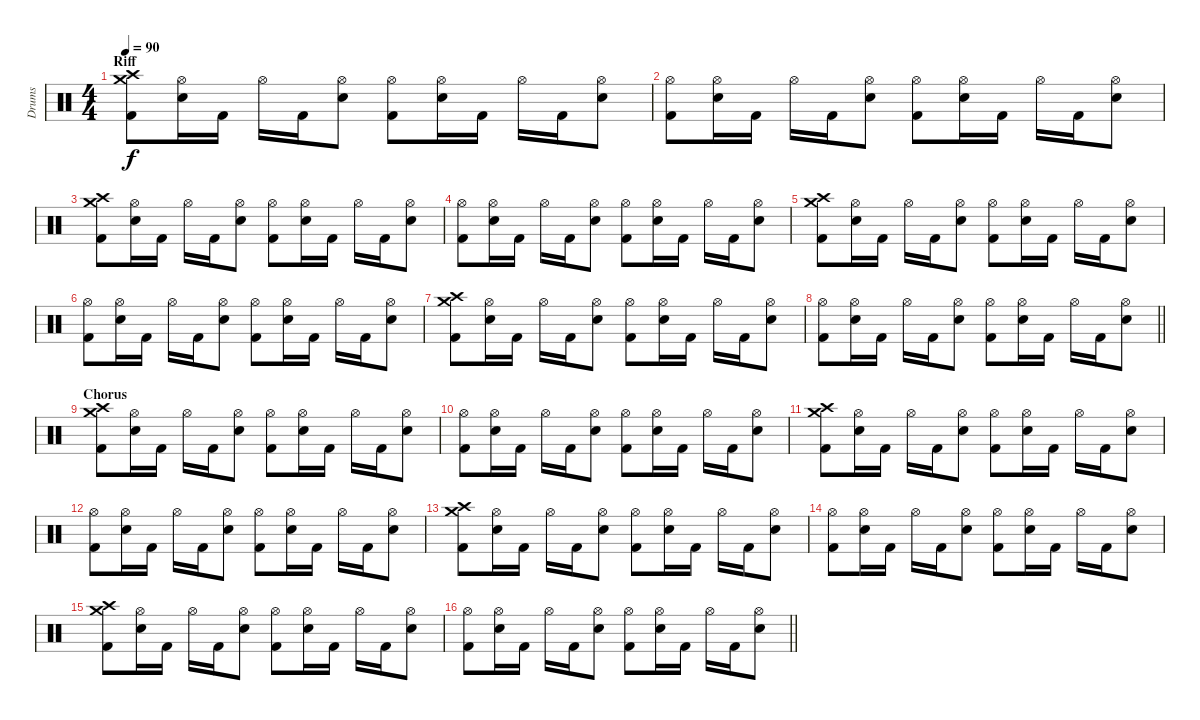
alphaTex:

\track ("Drums" "Drums") {instrument percussion}
\staff {score}
\articulation defaults
\ts (4 4)
\section ("" "Riff")
\tempo 90
\clef neutral
\ks c
("Kick (hit) 2" "Crash medium (hit)" "Crash high (hit)").8{dy f} ("Snare (hit) 2" "Hi-Hat (open)").16 "Kick (hit) 2".16 "Hi-Hat (open)".16 "Kick (hit) 2".16 ("Snare (hit) 2" "Hi-Hat (open)").8 ("Kick (hit) 2" "Hi-Hat (open)").8 ("Snare (hit) 2" "Hi-Hat (open)").16 "Kick (hit) 2".16 "Hi-Hat (open)".16 "Kick (hit) 2".16 ("Snare (hit) 2" "Hi-Hat (open)").8 |
("Kick (hit) 2" "Hi-Hat (open)").8 ("Snare (hit) 2" "Hi-Hat (open)").16 "Kick (hit) 2".16 "Hi-Hat (open)".16 "Kick (hit) 2".16 ("Snare (hit) 2" "Hi-Hat (open)").8 ("Kick (hit) 2" "Hi-Hat (open)").8 ("Snare (hit) 2" "Hi-Hat (open)").16 "Kick (hit) 2".16 "Hi-Hat (open)".16 "Kick (hit) 2".16 ("Snare (hit) 2" "Hi-Hat (open)").8 |
("Kick (hit) 2" "Crash medium (hit)" "Crash high (hit)").8 ("Snare (hit) 2" "Hi-Hat (open)").16 "Kick (hit) 2".16 "Hi-Hat (open)".16 "Kick (hit) 2".16 ("Snare (hit) 2" "Hi-Hat (open)").8 ("Kick (hit) 2" "Hi-Hat (open)").8 ("Snare (hit) 2" "Hi-Hat (open)").16 "Kick (hit) 2".16 "Hi-Hat (open)".16 "Kick (hit) 2".16 ("Snare (hit) 2" "Hi-Hat (open)").8 |
("Kick (hit) 2" "Hi-Hat (open)").8 ("Snare (hit) 2" "Hi-Hat (open)").16 "Kick (hit) 2".16 "Hi-Hat (open)".16 "Kick (hit) 2".16 ("Snare (hit) 2" "Hi-Hat (open)").8 ("Kick (hit) 2" "Hi-Hat (open)").8 ("Snare (hit) 2" "Hi-Hat (open)").16 "Kick (hit) 2".16 "Hi-Hat (open)".16 "Kick (hit) 2".16 ("Snare (hit) 2" "Hi-Hat (open)").8 |
("Kick (hit) 2" "Crash medium (hit)" "Crash high (hit)").8 ("Snare (hit) 2" "Hi-Hat (open)").16 "Kick (hit) 2".16 "Hi-Hat (open)".16 "Kick (hit) 2".16 ("Snare (hit) 2" "Hi-Hat (open)").8 ("Kick (hit) 2" "Hi-Hat (open)").8 ("Snare (hit) 2" "Hi-Hat (open)").16 "Kick (hit) 2".16 "Hi-Hat (open)".16 "Kick (hit) 2".16 ("Snare (hit) 2" "Hi-Hat (open)").8 |
("Kick (hit) 2" "Hi-Hat (open)").8 ("Snare (hit) 2" "Hi-Hat (open)").16 "Kick (hit) 2".16 "Hi-Hat (open)".16 "Kick (hit) 2".16 ("Snare (hit) 2" "Hi-Hat (open)").8 ("Kick (hit) 2" "Hi-Hat (open)").8 ("Snare (hit) 2" "Hi-Hat (open)").16 "Kick (hit) 2".16 "Hi-Hat (open)".16 "Kick (hit) 2".16 ("Snare (hit) 2" "Hi-Hat (open)").8 |
("Kick (hit) 2" "Crash medium (hit)" "Crash high (hit)").8 ("Snare (hit) 2" "Hi-Hat (open)").16 "Kick (hit) 2".16 "Hi-Hat (open)".16 "Kick (hit) 2".16 ("Snare (hit) 2" "Hi-Hat (open)").8 ("Kick (hit) 2" "Hi-Hat (open)").8 ("Snare (hit) 2" "Hi-Hat (open)").16 "Kick (hit) 2".16 "Hi-Hat (open)".16 "Kick (hit) 2".16 ("Snare (hit) 2" "Hi-Hat (open)").8 |
\barLineRight lightlight
("Kick (hit) 2" "Hi-Hat (open)").8 ("Snare (hit) 2" "Hi-Hat (open)").16 "Kick (hit) 2".16 "Hi-Hat (open)".16 "Kick (hit) 2".16 ("Snare (hit) 2" "Hi-Hat (open)").8 ("Kick (hit) 2" "Hi-Hat (open)").8 ("Snare (hit) 2" "Hi-Hat (open)").16 "Kick (hit) 2".16 "Hi-Hat (open)".16 "Kick (hit) 2".16 ("Snare (hit) 2" "Hi-Hat (open)").8 |
\section ("" "Chorus")
("Kick (hit) 2" "Crash medium (hit)" "Crash high (hit)").8 ("Snare (hit) 2" "Hi-Hat (open)").16 "Kick (hit) 2".16 "Hi-Hat (open)".16 "Kick (hit) 2".16 ("Snare (hit) 2" "Hi-Hat (open)").8 ("Kick (hit) 2" "Hi-Hat (open)").8 ("Snare (hit) 2" "Hi-Hat (open)").16 "Kick (hit) 2".16 "Hi-Hat (open)".16 "Kick (hit) 2".16 ("Snare (hit) 2" "Hi-Hat (open)").8 |
("Kick (hit) 2" "Hi-Hat (open)").8 ("Snare (hit) 2" "Hi-Hat (open)").16 "Kick (hit) 2".16 "Hi-Hat (open)".16 "Kick (hit) 2".16 ("Snare (hit) 2" "Hi-Hat (open)").8 ("Kick (hit) 2" "Hi-Hat (open)").8 ("Snare (hit) 2" "Hi-Hat (open)").16 "Kick (hit) 2".16 "Hi-Hat (open)".16 "Kick (hit) 2".16 ("Snare (hit) 2" "Hi-Hat (open)").8 |
("Kick (hit) 2" "Crash medium (hit)" "Crash high (hit)").8 ("Snare (hit) 2" "Hi-Hat (open)").16 "Kick (hit) 2".16 "Hi-Hat (open)".16 "Kick (hit) 2".16 ("Snare (hit) 2" "Hi-Hat (open)").8 ("Kick (hit) 2" "Hi-Hat (open)").8 ("Snare (hit) 2" "Hi-Hat (open)").16 "Kick (hit) 2".16 "Hi-Hat (open)".16 "Kick (hit) 2".16 ("Snare (hit) 2" "Hi-Hat (open)").8 |
("Kick (hit) 2" "Hi-Hat (open)").8 ("Snare (hit) 2" "Hi-Hat (open)").16 "Kick (hit) 2".16 "Hi-Hat (open)".16 "Kick (hit) 2".16 ("Snare (hit) 2" "Hi-Hat (open)").8 ("Kick (hit) 2" "Hi-Hat (open)").8 ("Snare (hit) 2" "Hi-Hat (open)").16 "Kick (hit) 2".16 "Hi-Hat (open)".16 "Kick (hit) 2".16 ("Snare (hit) 2" "Hi-Hat (open)").8 |
("Kick (hit) 2" "Crash medium (hit)" "Crash high (hit)").8 ("Snare (hit) 2" "Hi-Hat (open)").16 "Kick (hit) 2".16 "Hi-Hat (open)".16 "Kick (hit) 2".16 ("Snare (hit) 2" "Hi-Hat (open)").8 ("Kick (hit) 2" "Hi-Hat (open)").8 ("Snare (hit) 2" "Hi-Hat (open)").16 "Kick (hit) 2".16 "Hi-Hat (open)".16 "Kick (hit) 2".16 ("Snare (hit) 2" "Hi-Hat (open)").8 |
("Kick (hit) 2" "Hi-Hat (open)").8 ("Snare (hit) 2" "Hi-Hat (open)").16 "Kick (hit) 2".16 "Hi-Hat (open)".16 "Kick (hit) 2".16 ("Snare (hit) 2" "Hi-Hat (open)").8 ("Kick (hit) 2" "Hi-Hat (open)").8 ("Snare (hit) 2" "Hi-Hat (open)").16 "Kick (hit) 2".16 "Hi-Hat (open)".16 "Kick (hit) 2".16 ("Snare (hit) 2" "Hi-Hat (open)").8 |
("Kick (hit) 2" "Crash medium (hit)" "Crash high (hit)").8 ("Snare (hit) 2" "Hi-Hat (open)").16 "Kick (hit) 2".16 "Hi-Hat (open)".16 "Kick (hit) 2".16 ("Snare (hit) 2" "Hi-Hat (open)").8 ("Kick (hit) 2" "Hi-Hat (open)").8 ("Snare (hit) 2" "Hi-Hat (open)").16 "Kick (hit) 2".16 "Hi-Hat (open)".16 "Kick (hit) 2".16 ("Snare (hit) 2" "Hi-Hat (open)").8 |
\barLineRight lightlight
("Kick (hit) 2" "Hi-Hat (open)").8 ("Snare (hit) 2" "Hi-Hat (open)").16 "Kick (hit) 2".16 "Hi-Hat (open)".16 "Kick (hit) 2".16 ("Snare (hit) 2" "Hi-Hat (open)").8 ("Kick (hit) 2" "Hi-Hat (open)").8 ("Snare (hit) 2" "Hi-Hat (open)").16 "Kick (hit) 2".16 "Hi-Hat (open)".16 "Kick (hit) 2".16 ("Snare (hit) 2" "Hi-Hat (open)").8
